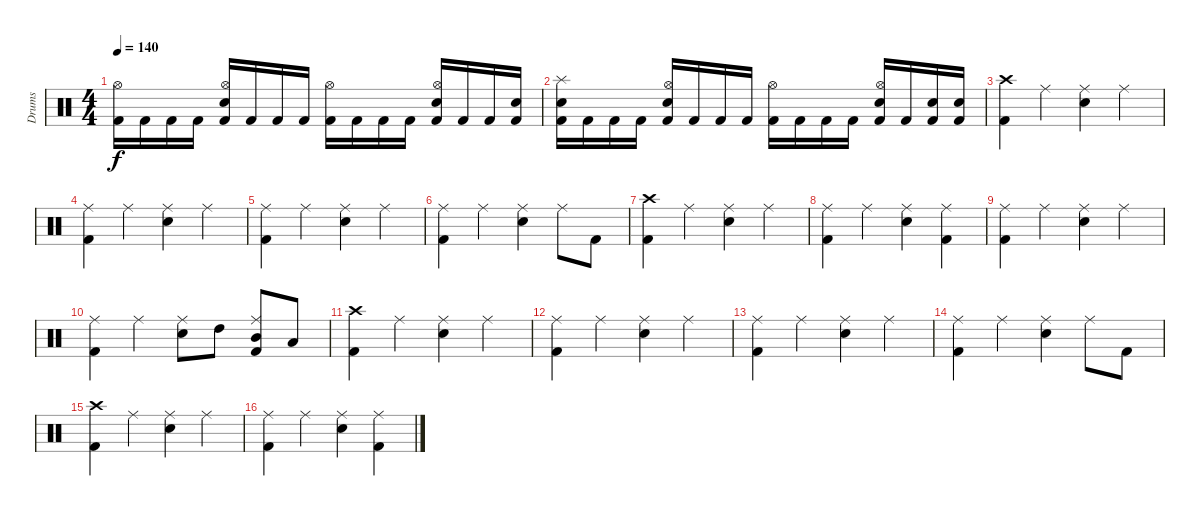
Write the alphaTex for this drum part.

\track ("Drums" "Drums") {instrument percussion}
\staff {score}
\articulation defaults
\ts (4 4)
\tempo 140
\clef neutral
\ks c
("Kick (hit) 2" "Hi-Hat (open)").16{dy f} "Kick (hit) 2".16 "Kick (hit) 2".16 "Kick (hit) 2".16 ("Kick (hit) 2" "Electric Snare (hit)" "Hi-Hat (open)").16 "Kick (hit) 2".16 "Kick (hit) 2".16 "Kick (hit) 2".16 ("Kick (hit) 2" "Hi-Hat (open)").16 "Kick (hit) 2".16 "Kick (hit) 2".16 "Kick (hit) 2".16 ("Kick (hit) 2" "Electric Snare (hit)" "Hi-Hat (open)").16 "Kick (hit) 2".16 "Kick (hit) 2".16 ("Kick (hit) 2" "Electric Snare (hit)").16 |
("Kick (hit) 2" "Electric Snare (hit)" "Splash (hit)").16 "Kick (hit) 2".16 "Kick (hit) 2".16 "Kick (hit) 2".16 ("Kick (hit) 2" "Electric Snare (hit)" "Hi-Hat (open)").16 "Kick (hit) 2".16 "Kick (hit) 2".16 "Kick (hit) 2".16 ("Kick (hit) 2" "Hi-Hat (open)").16 "Kick (hit) 2".16 "Kick (hit) 2".16 "Kick (hit) 2".16 ("Kick (hit) 2" "Electric Snare (hit)" "Hi-Hat (open)").16 "Kick (hit) 2".16 ("Kick (hit) 2" "Electric Snare (hit)").16 ("Kick (hit) 2" "Electric Snare (hit)").16 |
("Kick (hit) 2" "Crash high (hit)").4 "Ride (middle)".4 ("Electric Snare (hit)" "Ride (middle)").4 "Ride (middle)".4 |
("Kick (hit) 2" "Ride (middle)").4 "Ride (middle)".4 ("Electric Snare (hit)" "Ride (middle)").4 "Ride (middle)".4 |
("Kick (hit) 2" "Ride (middle)").4 "Ride (middle)".4 ("Electric Snare (hit)" "Ride (middle)").4 "Ride (middle)".4 |
("Kick (hit) 2" "Ride (middle)").4 "Ride (middle)".4 ("Electric Snare (hit)" "Ride (middle)").4 "Ride (middle)".8 "Kick (hit) 2".8 |
("Kick (hit) 2" "Crash high (hit)").4 "Ride (middle)".4 ("Electric Snare (hit)" "Ride (middle)").4 "Ride (middle)".4 |
("Kick (hit) 2" "Ride (middle)").4 "Ride (middle)".4 ("Electric Snare (hit)" "Ride (middle)").4 ("Kick (hit) 2" "Ride (middle)").4 |
("Kick (hit) 2" "Ride (middle)").4 "Ride (middle)".4 ("Electric Snare (hit)" "Ride (middle)").4 "Ride (middle)".4 |
("Kick (hit) 2" "Ride (middle)").4 "Ride (middle)".4 ("Electric Snare (hit)" "Ride (middle)").8 "High Tom (hit)".8 ("Kick (hit) 2" "Ride (middle)" "Mid Tom (hit)").8 "Low Tom (hit)".8 |
("Kick (hit) 2" "Crash high (hit)").4 "Ride (middle)".4 ("Electric Snare (hit)" "Ride (middle)").4 "Ride (middle)".4 |
("Kick (hit) 2" "Ride (middle)").4 "Ride (middle)".4 ("Electric Snare (hit)" "Ride (middle)").4 "Ride (middle)".4 |
("Kick (hit) 2" "Ride (middle)").4 "Ride (middle)".4 ("Electric Snare (hit)" "Ride (middle)").4 "Ride (middle)".4 |
("Kick (hit) 2" "Ride (middle)").4 "Ride (middle)".4 ("Electric Snare (hit)" "Ride (middle)").4 "Ride (middle)".8 "Kick (hit) 2".8 |
("Kick (hit) 2" "Crash high (hit)").4 "Ride (middle)".4 ("Electric Snare (hit)" "Ride (middle)").4 "Ride (middle)".4 |
("Kick (hit) 2" "Ride (middle)").4 "Ride (middle)".4 ("Electric Snare (hit)" "Ride (middle)").4 ("Kick (hit) 2" "Ride (middle)").4
